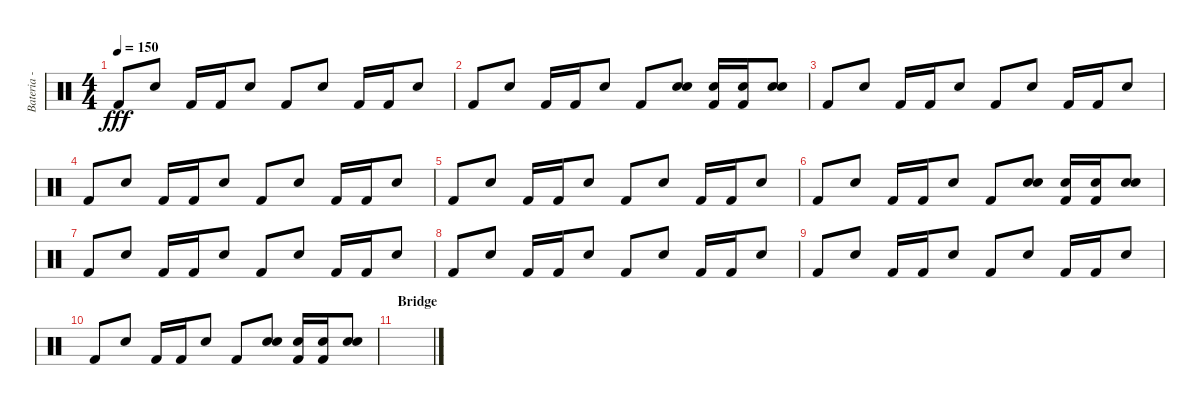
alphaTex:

\track ("Bateria - Larzon" "Bateria - ") {instrument percussion}
\staff {score}
\articulation defaults
\ts (4 4)
\tempo 150
\clef neutral
\ks c "Kick (hit) 2".8{dy fff} "Electric Snare (hit)".8 "Kick (hit) 2".16 "Kick (hit) 2".16 "Electric Snare (hit)".8 "Kick (hit) 2".8 "Electric Snare (hit)".8 "Kick (hit) 2".16 "Kick (hit) 2".16 "Electric Snare (hit)".8
|
"Kick (hit) 2".8 "Electric Snare (hit)".8 "Kick (hit) 2".16 "Kick (hit) 2".16 "Electric Snare (hit)".8 "Kick (hit) 2".8 ("Electric Snare (hit)" "Electric Snare (hit)").8 ("Kick (hit) 2" "Electric Snare (hit)").16 ("Kick (hit) 2" "Electric Snare (hit)").16 ("Electric Snare (hit)" "Electric Snare (hit)").8 |
"Kick (hit) 2".8 "Electric Snare (hit)".8 "Kick (hit) 2".16 "Kick (hit) 2".16 "Electric Snare (hit)".8 "Kick (hit) 2".8 "Electric Snare (hit)".8 "Kick (hit) 2".16 "Kick (hit) 2".16 "Electric Snare (hit)".8 |
"Kick (hit) 2".8 "Electric Snare (hit)".8 "Kick (hit) 2".16 "Kick (hit) 2".16 "Electric Snare (hit)".8 "Kick (hit) 2".8 "Electric Snare (hit)".8 "Kick (hit) 2".16 "Kick (hit) 2".16 "Electric Snare (hit)".8 |
"Kick (hit) 2".8 "Electric Snare (hit)".8 "Kick (hit) 2".16 "Kick (hit) 2".16 "Electric Snare (hit)".8 "Kick (hit) 2".8 "Electric Snare (hit)".8 "Kick (hit) 2".16 "Kick (hit) 2".16 "Electric Snare (hit)".8 |
"Kick (hit) 2".8 "Electric Snare (hit)".8 "Kick (hit) 2".16 "Kick (hit) 2".16 "Electric Snare (hit)".8 "Kick (hit) 2".8 ("Electric Snare (hit)" "Electric Snare (hit)").8 ("Kick (hit) 2" "Electric Snare (hit)").16 ("Kick (hit) 2" "Electric Snare (hit)").16 ("Electric Snare (hit)" "Electric Snare (hit)").8 |
"Kick (hit) 2".8 "Electric Snare (hit)".8 "Kick (hit) 2".16 "Kick (hit) 2".16 "Electric Snare (hit)".8 "Kick (hit) 2".8 "Electric Snare (hit)".8 "Kick (hit) 2".16 "Kick (hit) 2".16 "Electric Snare (hit)".8 |
"Kick (hit) 2".8 "Electric Snare (hit)".8 "Kick (hit) 2".16 "Kick (hit) 2".16 "Electric Snare (hit)".8 "Kick (hit) 2".8 "Electric Snare (hit)".8 "Kick (hit) 2".16 "Kick (hit) 2".16 "Electric Snare (hit)".8 |
"Kick (hit) 2".8 "Electric Snare (hit)".8 "Kick (hit) 2".16 "Kick (hit) 2".16 "Electric Snare (hit)".8 "Kick (hit) 2".8 "Electric Snare (hit)".8 "Kick (hit) 2".16 "Kick (hit) 2".16 "Electric Snare (hit)".8 |
"Kick (hit) 2".8 "Electric Snare (hit)".8 "Kick (hit) 2".16 "Kick (hit) 2".16 "Electric Snare (hit)".8 "Kick (hit) 2".8 ("Electric Snare (hit)" "Electric Snare (hit)").8 ("Kick (hit) 2" "Electric Snare (hit)").16 ("Kick (hit) 2" "Electric Snare (hit)").16 ("Electric Snare (hit)" "Electric Snare (hit)").8 |
\section ("" "Bridge")
